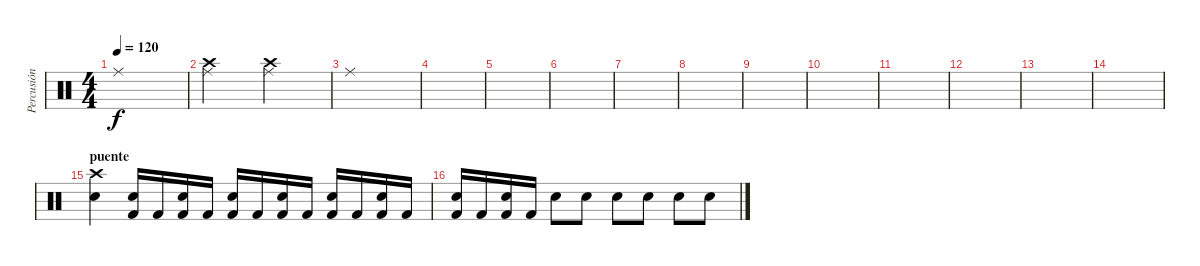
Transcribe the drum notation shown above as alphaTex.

\track ("Percusión" "Percusión") {instrument percussion}
\staff {score}
\articulation defaults
\ts (4 4)
\tempo 120
\clef neutral
\ks c "Ride (middle)".1{dy f}
|
("Crash high (hit)" "Ride (middle)").2 ("Crash high (hit)" "Ride (middle)").2 |
"Ride (middle)".1 |
|
|
|
|
|
|
|
|
|
|
|
\section ("" "puente")
("Crash high (hit)" "Electric Snare (hit)").4 ("Kick (hit) 2" "Electric Snare (hit)").16 "Kick (hit) 2".16 ("Kick (hit) 2" "Electric Snare (hit)").16 "Kick (hit) 2".16 ("Kick (hit) 2" "Electric Snare (hit)").16 "Kick (hit) 2".16 ("Kick (hit) 2" "Electric Snare (hit)").16 "Kick (hit) 2".16 ("Kick (hit) 2" "Electric Snare (hit)").16 "Kick (hit) 2".16 ("Kick (hit) 2" "Electric Snare (hit)").16 "Kick (hit) 2".16 |
("Kick (hit) 2" "Electric Snare (hit)").16 "Kick (hit) 2".16 ("Kick (hit) 2" "Electric Snare (hit)").16 "Kick (hit) 2".16 "Electric Snare (hit)".8 "Electric Snare (hit)".8 "Electric Snare (hit)".8 "Electric Snare (hit)".8 "Electric Snare (hit)".8 "Electric Snare (hit)".8
